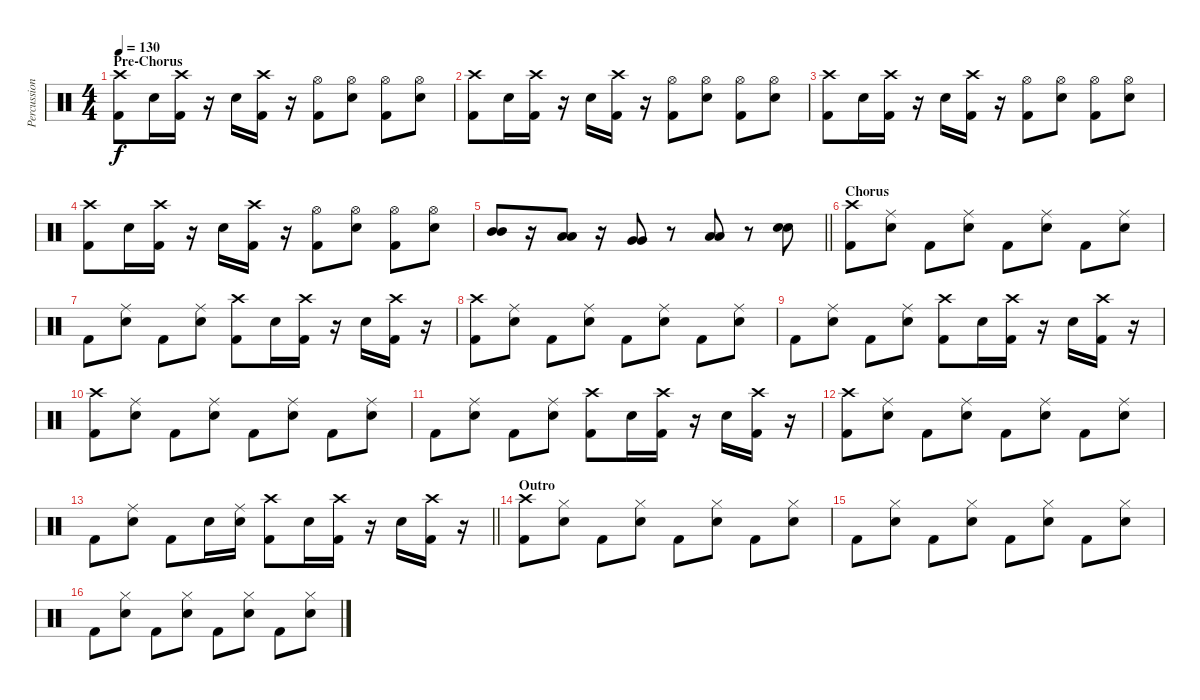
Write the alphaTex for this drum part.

\track ("Percussion" "Percussion") {instrument percussion}
\staff {score}
\articulation defaults
\ts (4 4)
\section ("" "Pre-Chorus")
\tempo 130
\clef neutral
\ks c
("Crash high (hit)" "Kick (hit) 2").8{dy f} "Snare (hit) 2".16 ("Crash high (hit)" "Kick (hit) 2").16 r.16 "Snare (hit) 2".16 ("Crash high (hit)" "Kick (hit) 2").16 r.16 ("Hi-Hat (open)" "Kick (hit) 2").8 ("Hi-Hat (open)" "Snare (hit) 2").8 ("Hi-Hat (open)" "Kick (hit) 2").8 ("Hi-Hat (open)" "Snare (hit) 2").8 |
("Crash high (hit)" "Kick (hit) 2").8 "Snare (hit) 2".16 ("Crash high (hit)" "Kick (hit) 2").16 r.16 "Snare (hit) 2".16 ("Crash high (hit)" "Kick (hit) 2").16 r.16 ("Hi-Hat (open)" "Kick (hit) 2").8 ("Hi-Hat (open)" "Snare (hit) 2").8 ("Hi-Hat (open)" "Kick (hit) 2").8 ("Hi-Hat (open)" "Snare (hit) 2").8 |
("Crash high (hit)" "Kick (hit) 2").8 "Snare (hit) 2".16 ("Crash high (hit)" "Kick (hit) 2").16 r.16 "Snare (hit) 2".16 ("Crash high (hit)" "Kick (hit) 2").16 r.16 ("Hi-Hat (open)" "Kick (hit) 2").8 ("Hi-Hat (open)" "Snare (hit) 2").8 ("Hi-Hat (open)" "Kick (hit) 2").8 ("Hi-Hat (open)" "Snare (hit) 2").8 |
("Crash high (hit)" "Kick (hit) 2").8 "Snare (hit) 2".16 ("Crash high (hit)" "Kick (hit) 2").16 r.16 "Snare (hit) 2".16 ("Crash high (hit)" "Kick (hit) 2").16 r.16 ("Hi-Hat (open)" "Kick (hit) 2").8 ("Hi-Hat (open)" "Snare (hit) 2").8 ("Hi-Hat (open)" "Kick (hit) 2").8 ("Hi-Hat (open)" "Snare (hit) 2").8 |
\barLineRight lightlight
("Mid Tom (hit)" "Mid Tom (hit)").8 r.16 ("Low Tom (hit)" "Low Tom (hit)").8 r.16 ("Very Low Tom (hit)" "Very Low Tom (hit)").8 r.8 ("Low Floor Tom (hit)" "Low Floor Tom (hit)").8 r.8 ("Snare (hit) 2" "Snare (hit) 2").8 |
\section ("" "Chorus")
("Crash high (hit)" "Kick (hit) 2").8 ("Ride (middle)" "Snare (hit) 2").8 "Kick (hit) 2".8 ("Ride (middle)" "Snare (hit) 2").8 "Kick (hit) 2".8 ("Ride (middle)" "Snare (hit) 2").8 "Kick (hit) 2".8 ("Ride (middle)" "Snare (hit) 2").8 |
"Kick (hit) 2".8 ("Ride (middle)" "Snare (hit) 2").8 "Kick (hit) 2".8 ("Ride (middle)" "Snare (hit) 2").8 ("Crash high (hit)" "Kick (hit) 2").8 "Snare (hit) 2".16 ("Crash high (hit)" "Kick (hit) 2").16 r.16 "Snare (hit) 2".16 ("Crash high (hit)" "Kick (hit) 2").16 r.16 |
("Crash high (hit)" "Kick (hit) 2").8 ("Ride (middle)" "Snare (hit) 2").8 "Kick (hit) 2".8 ("Ride (middle)" "Snare (hit) 2").8 "Kick (hit) 2".8 ("Ride (middle)" "Snare (hit) 2").8 "Kick (hit) 2".8 ("Ride (middle)" "Snare (hit) 2").8 |
"Kick (hit) 2".8 ("Ride (middle)" "Snare (hit) 2").8 "Kick (hit) 2".8 ("Ride (middle)" "Snare (hit) 2").8 ("Crash high (hit)" "Kick (hit) 2").8 "Snare (hit) 2".16 ("Crash high (hit)" "Kick (hit) 2").16 r.16 "Snare (hit) 2".16 ("Crash high (hit)" "Kick (hit) 2").16 r.16 |
("Crash high (hit)" "Kick (hit) 2").8 ("Ride (middle)" "Snare (hit) 2").8 "Kick (hit) 2".8 ("Ride (middle)" "Snare (hit) 2").8 "Kick (hit) 2".8 ("Ride (middle)" "Snare (hit) 2").8 "Kick (hit) 2".8 ("Ride (middle)" "Snare (hit) 2").8 |
"Kick (hit) 2".8 ("Ride (middle)" "Snare (hit) 2").8 "Kick (hit) 2".8 ("Ride (middle)" "Snare (hit) 2").8 ("Crash high (hit)" "Kick (hit) 2").8 "Snare (hit) 2".16 ("Crash high (hit)" "Kick (hit) 2").16 r.16 "Snare (hit) 2".16 ("Crash high (hit)" "Kick (hit) 2").16 r.16 |
("Crash high (hit)" "Kick (hit) 2").8 ("Ride (middle)" "Snare (hit) 2").8 "Kick (hit) 2".8 ("Ride (middle)" "Snare (hit) 2").8 "Kick (hit) 2".8 ("Ride (middle)" "Snare (hit) 2").8 "Kick (hit) 2".8 ("Ride (middle)" "Snare (hit) 2").8 |
\barLineRight lightlight "Kick (hit) 2".8
("Ride (middle)" "Snare (hit) 2").8 "Kick (hit) 2".8 "Snare (hit) 2".16 ("Ride (middle)" "Snare (hit) 2").16 ("Crash high (hit)" "Kick (hit) 2").8 "Snare (hit) 2".16 ("Crash high (hit)" "Kick (hit) 2").16 r.16 "Snare (hit) 2".16 ("Crash high (hit)" "Kick (hit) 2").16 r.16 |
\section ("" "Outro")
("Crash high (hit)" "Kick (hit) 2").8 ("Hi-Hat (closed)" "Snare (hit) 2").8 "Kick (hit) 2".8 ("Hi-Hat (closed)" "Snare (hit) 2").8 "Kick (hit) 2".8 ("Hi-Hat (closed)" "Snare (hit) 2").8 "Kick (hit) 2".8 ("Hi-Hat (closed)" "Snare (hit) 2").8 |
"Kick (hit) 2".8 ("Hi-Hat (closed)" "Snare (hit) 2").8 "Kick (hit) 2".8 ("Hi-Hat (closed)" "Snare (hit) 2").8 "Kick (hit) 2".8 ("Hi-Hat (closed)" "Snare (hit) 2").8 "Kick (hit) 2".8 ("Hi-Hat (closed)" "Snare (hit) 2").8 |
"Kick (hit) 2".8 ("Hi-Hat (closed)" "Snare (hit) 2").8 "Kick (hit) 2".8 ("Hi-Hat (closed)" "Snare (hit) 2").8 "Kick (hit) 2".8 ("Hi-Hat (closed)" "Snare (hit) 2").8 "Kick (hit) 2".8 ("Hi-Hat (closed)" "Snare (hit) 2").8
